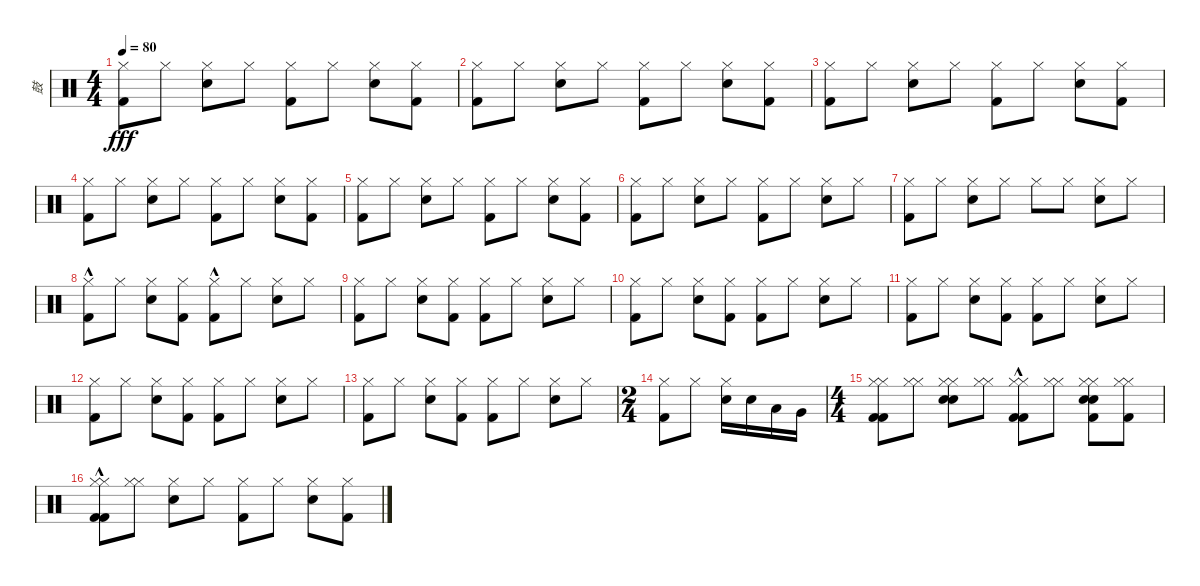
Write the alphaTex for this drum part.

\track ("鼓" "鼓") {instrument percussion}
\staff {score}
\articulation defaults
\ts (4 4)
\tempo 80
\clef neutral
\ks c
("Kick (hit) 2" "Hi-Hat (closed)").8{dy fff} "Hi-Hat (closed)".8 ("Snare (hit) 2" "Hi-Hat (closed)").8 "Hi-Hat (closed)".8 ("Kick (hit) 2" "Hi-Hat (closed)").8 "Hi-Hat (closed)".8 ("Snare (hit) 2" "Hi-Hat (closed)").8 ("Kick (hit) 2" "Hi-Hat (closed)").8 |
("Kick (hit) 2" "Hi-Hat (closed)").8 "Hi-Hat (closed)".8 ("Snare (hit) 2" "Hi-Hat (closed)").8 "Hi-Hat (closed)".8 ("Kick (hit) 2" "Hi-Hat (closed)").8 "Hi-Hat (closed)".8 ("Snare (hit) 2" "Hi-Hat (closed)").8 ("Kick (hit) 2" "Hi-Hat (closed)").8 |
("Kick (hit) 2" "Hi-Hat (closed)").8 "Hi-Hat (closed)".8 ("Snare (hit) 2" "Hi-Hat (closed)").8 "Hi-Hat (closed)".8 ("Kick (hit) 2" "Hi-Hat (closed)").8 "Hi-Hat (closed)".8 ("Snare (hit) 2" "Hi-Hat (closed)").8 ("Kick (hit) 2" "Hi-Hat (closed)").8 |
("Hi-Hat (closed)" "Kick (hit) 2").8 "Hi-Hat (closed)".8 ("Hi-Hat (closed)" "Snare (hit) 2").8 "Hi-Hat (closed)".8 ("Hi-Hat (closed)" "Kick (hit) 2").8 "Hi-Hat (closed)".8 ("Hi-Hat (closed)" "Snare (hit) 2").8 ("Hi-Hat (closed)" "Kick (hit) 2").8 |
("Kick (hit) 2" "Hi-Hat (closed)").8 "Hi-Hat (closed)".8 ("Snare (hit) 2" "Hi-Hat (closed)").8 "Hi-Hat (closed)".8 ("Kick (hit) 2" "Hi-Hat (closed)").8 "Hi-Hat (closed)".8 ("Snare (hit) 2" "Hi-Hat (closed)").8 ("Kick (hit) 2" "Hi-Hat (closed)").8 |
("Hi-Hat (closed)" "Kick (hit) 2").8 "Hi-Hat (closed)".8 ("Hi-Hat (closed)" "Snare (hit) 2").8 "Hi-Hat (closed)".8 ("Hi-Hat (closed)" "Kick (hit) 2").8 "Hi-Hat (closed)".8 ("Snare (hit) 2" "Hi-Hat (closed)").8 "Hi-Hat (closed)".8 |
("Hi-Hat (closed)" "Kick (hit) 2").8 "Hi-Hat (closed)".8 ("Hi-Hat (closed)" "Snare (hit) 2").8 "Hi-Hat (closed)".8 "Hi-Hat (closed)".8 "Hi-Hat (closed)".8 ("Snare (hit) 2" "Hi-Hat (closed)").8 "Hi-Hat (closed)".8 |
("Kick (hit) 2"{hac} "Hi-Hat (closed)").8 "Hi-Hat (closed)".8 ("Snare (hit) 2" "Hi-Hat (closed)").8 ("Kick (hit) 2" "Hi-Hat (closed)").8 ("Kick (hit) 2"{hac} "Hi-Hat (closed)").8 "Hi-Hat (closed)".8 ("Snare (hit) 2" "Hi-Hat (closed)").8 "Hi-Hat (closed)".8 |
("Kick (hit) 2" "Hi-Hat (closed)").8 "Hi-Hat (closed)".8 ("Snare (hit) 2" "Hi-Hat (closed)").8 ("Kick (hit) 2" "Hi-Hat (closed)").8 ("Kick (hit) 2" "Hi-Hat (closed)").8 "Hi-Hat (closed)".8 ("Snare (hit) 2" "Hi-Hat (closed)").8 "Hi-Hat (closed)".8 |
("Kick (hit) 2" "Hi-Hat (closed)").8 "Hi-Hat (closed)".8 ("Snare (hit) 2" "Hi-Hat (closed)").8 ("Kick (hit) 2" "Hi-Hat (closed)").8 ("Kick (hit) 2" "Hi-Hat (closed)").8 "Hi-Hat (closed)".8 ("Snare (hit) 2" "Hi-Hat (closed)").8 "Hi-Hat (closed)".8 |
("Kick (hit) 2" "Hi-Hat (closed)").8 "Hi-Hat (closed)".8 ("Snare (hit) 2" "Hi-Hat (closed)").8 ("Kick (hit) 2" "Hi-Hat (closed)").8 ("Kick (hit) 2" "Hi-Hat (closed)").8 "Hi-Hat (closed)".8 ("Snare (hit) 2" "Hi-Hat (closed)").8 "Hi-Hat (closed)".8 |
("Kick (hit) 2" "Hi-Hat (closed)").8 "Hi-Hat (closed)".8 ("Snare (hit) 2" "Hi-Hat (closed)").8 ("Kick (hit) 2" "Hi-Hat (closed)").8 ("Hi-Hat (closed)" "Kick (hit) 2").8 "Hi-Hat (closed)".8 ("Hi-Hat (closed)" "Snare (hit) 2").8 "Hi-Hat (closed)".8 |
("Hi-Hat (closed)" "Kick (hit) 2").8 "Hi-Hat (closed)".8 ("Hi-Hat (closed)" "Snare (hit) 2").8 ("Hi-Hat (closed)" "Kick (hit) 2").8 ("Kick (hit) 2" "Hi-Hat (closed)").8 "Hi-Hat (closed)".8 ("Snare (hit) 2" "Hi-Hat (closed)").8 "Hi-Hat (closed)".8 |
\ts (2 4)
("Kick (hit) 2" "Hi-Hat (closed)").8 "Hi-Hat (closed)".8 ("Hi-Hat (closed)" "Electric Snare (hit)").16 "Snare (hit) 2".16 "Low Tom (hit)".16 "Very Low Tom (hit)".16 |
\ts (4 4)
("Hi-Hat (closed)" "Kick (hit) 2" "Kick (hit) 2" "Hi-Hat (closed)").8 ("Hi-Hat (closed)" "Hi-Hat (closed)").8 ("Hi-Hat (closed)" "Snare (hit) 2" "Snare (hit) 2" "Hi-Hat (closed)").8 ("Hi-Hat (closed)" "Hi-Hat (closed)").8 ("Kick (hit) 2"{hac} "Hi-Hat (closed)" "Kick (hit) 2"{hac} "Hi-Hat (closed)").8 ("Hi-Hat (closed)" "Hi-Hat (closed)").8 ("Snare (hit) 2" "Hi-Hat (closed)" "Kick (hit) 2" "Snare (hit) 2" "Hi-Hat (closed)").8 ("Hi-Hat (closed)" "Kick (hit) 2" "Hi-Hat (closed)").8 |
("Hi-Hat (closed)" "Kick (hit) 2"{hac} "Kick (hit) 2"{hac} "Hi-Hat (closed)").8 ("Hi-Hat (closed)" "Hi-Hat (closed)").8 ("Snare (hit) 2" "Hi-Hat (closed)").8 "Hi-Hat (closed)".8 ("Kick (hit) 2" "Hi-Hat (closed)").8 "Hi-Hat (closed)".8 ("Snare (hit) 2" "Hi-Hat (closed)").8 ("Kick (hit) 2" "Hi-Hat (closed)").8
